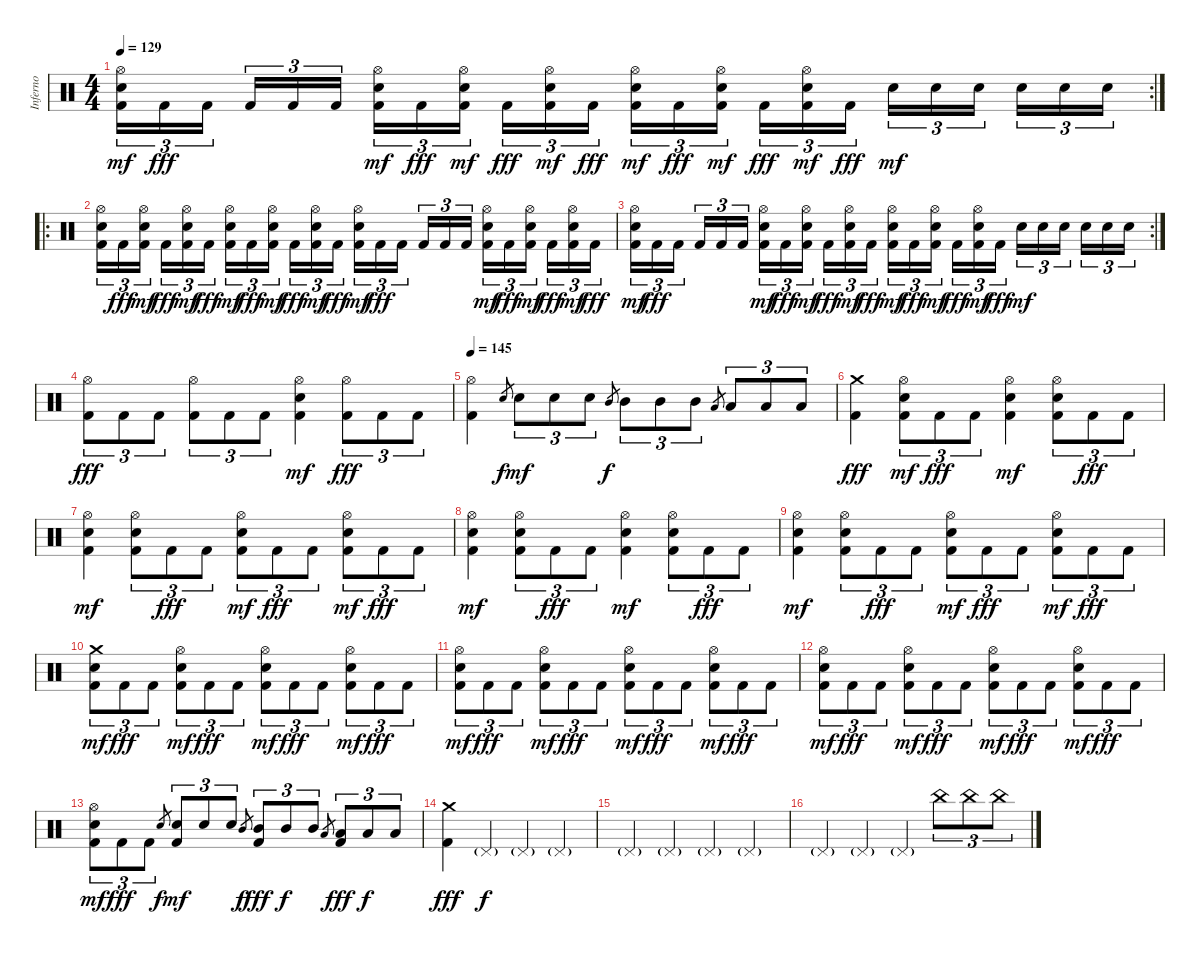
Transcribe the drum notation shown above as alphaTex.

\track ("Inferno" "Inferno") {instrument percussion}
\staff {score}
\articulation defaults
\rc 2
\ts (4 4)
\tempo 129
\clef neutral
\ks c
("Kick (hit) 2" "Electric Snare (hit)" "Hi-Hat (open)").16{tu (3 2) dy mf} "Kick (hit) 2".16{tu (3 2) dy fff} "Kick (hit) 2".16{tu (3 2) beam splitsecondary} "Kick (hit) 2".16{tu (3 2)} "Kick (hit) 2".16{tu (3 2)} "Kick (hit) 2".16{tu (3 2)} ("Kick (hit) 2" "Electric Snare (hit)" "Hi-Hat (open)").16{tu (3 2) dy mf} "Kick (hit) 2".16{tu (3 2) dy fff} ("Kick (hit) 2" "Electric Snare (hit)" "Hi-Hat (open)").16{tu (3 2) dy mf beam splitsecondary} "Kick (hit) 2".16{tu (3 2) dy fff} ("Kick (hit) 2" "Electric Snare (hit)" "Hi-Hat (open)").16{tu (3 2) dy mf} "Kick (hit) 2".16{tu (3 2) dy fff} ("Kick (hit) 2" "Electric Snare (hit)" "Hi-Hat (open)").16{tu (3 2) dy mf} "Kick (hit) 2".16{tu (3 2) dy fff} ("Kick (hit) 2" "Electric Snare (hit)" "Hi-Hat (open)").16{tu (3 2) dy mf beam splitsecondary} "Kick (hit) 2".16{tu (3 2) dy fff} ("Kick (hit) 2" "Electric Snare (hit)" "Hi-Hat (open)").16{tu (3 2) dy mf} "Kick (hit) 2".16{tu (3 2) dy fff} "Electric Snare (hit)".16{tu (3 2) dy mf} "Electric Snare (hit)".16{tu (3 2)} "Electric Snare (hit)".16{tu (3 2) beam splitsecondary} "Electric Snare (hit)".16{tu (3 2)} "Electric Snare (hit)".16{tu (3 2)} "Electric Snare (hit)".16{tu (3 2)} |
\ro
("Kick (hit) 2" "Electric Snare (hit)" "Hi-Hat (open)").16{tu (3 2)} "Kick (hit) 2".16{tu (3 2) dy fff} ("Kick (hit) 2" "Electric Snare (hit)" "Hi-Hat (open)").16{tu (3 2) dy mf beam splitsecondary} "Kick (hit) 2".16{tu (3 2) dy fff} ("Kick (hit) 2" "Electric Snare (hit)" "Hi-Hat (open)").16{tu (3 2) dy mf} "Kick (hit) 2".16{tu (3 2) dy fff} ("Kick (hit) 2" "Electric Snare (hit)" "Hi-Hat (open)").16{tu (3 2) dy mf} "Kick (hit) 2".16{tu (3 2) dy fff} ("Kick (hit) 2" "Electric Snare (hit)" "Hi-Hat (open)").16{tu (3 2) dy mf beam splitsecondary} "Kick (hit) 2".16{tu (3 2) dy fff} ("Kick (hit) 2" "Electric Snare (hit)" "Hi-Hat (open)").16{tu (3 2) dy mf} "Kick (hit) 2".16{tu (3 2) dy fff} ("Kick (hit) 2" "Electric Snare (hit)" "Hi-Hat (open)").16{tu (3 2) dy mf} "Kick (hit) 2".16{tu (3 2) dy fff} "Kick (hit) 2".16{tu (3 2) beam splitsecondary} "Kick (hit) 2".16{tu (3 2)} "Kick (hit) 2".16{tu (3 2)} "Kick (hit) 2".16{tu (3 2)} ("Kick (hit) 2" "Electric Snare (hit)" "Hi-Hat (open)").16{tu (3 2) dy mf} "Kick (hit) 2".16{tu (3 2) dy fff} ("Kick (hit) 2" "Electric Snare (hit)" "Hi-Hat (open)").16{tu (3 2) dy mf beam splitsecondary} "Kick (hit) 2".16{tu (3 2) dy fff} ("Kick (hit) 2" "Electric Snare (hit)" "Hi-Hat (open)").16{tu (3 2) dy mf} "Kick (hit) 2".16{tu (3 2) dy fff} |
\rc 2
("Kick (hit) 2" "Electric Snare (hit)" "Hi-Hat (open)").16{tu (3 2) dy mf} "Kick (hit) 2".16{tu (3 2) dy fff} "Kick (hit) 2".16{tu (3 2) beam splitsecondary} "Kick (hit) 2".16{tu (3 2)} "Kick (hit) 2".16{tu (3 2)} "Kick (hit) 2".16{tu (3 2)} ("Kick (hit) 2" "Electric Snare (hit)" "Hi-Hat (open)").16{tu (3 2) dy mf} "Kick (hit) 2".16{tu (3 2) dy fff} ("Kick (hit) 2" "Electric Snare (hit)" "Hi-Hat (open)").16{tu (3 2) dy mf beam splitsecondary} "Kick (hit) 2".16{tu (3 2) dy fff} ("Kick (hit) 2" "Electric Snare (hit)" "Hi-Hat (open)").16{tu (3 2) dy mf} "Kick (hit) 2".16{tu (3 2) dy fff} ("Kick (hit) 2" "Electric Snare (hit)" "Hi-Hat (open)").16{tu (3 2) dy mf} "Kick (hit) 2".16{tu (3 2) dy fff} ("Kick (hit) 2" "Electric Snare (hit)" "Hi-Hat (open)").16{tu (3 2) dy mf beam splitsecondary} "Kick (hit) 2".16{tu (3 2) dy fff} ("Kick (hit) 2" "Electric Snare (hit)" "Hi-Hat (open)").16{tu (3 2) dy mf} "Kick (hit) 2".16{tu (3 2) dy fff} "Electric Snare (hit)".16{tu (3 2) dy mf} "Electric Snare (hit)".16{tu (3 2)} "Electric Snare (hit)".16{tu (3 2) beam splitsecondary} "Electric Snare (hit)".16{tu (3 2)} "Electric Snare (hit)".16{tu (3 2)} "Electric Snare (hit)".16{tu (3 2)} |
("Kick (hit) 2" "Hi-Hat (open)").8{tu (3 2) dy fff} "Kick (hit) 2".8{tu (3 2)} "Kick (hit) 2".8{tu (3 2)} ("Kick (hit) 2" "Hi-Hat (open)").8{tu (3 2)} "Kick (hit) 2".8{tu (3 2)} "Kick (hit) 2".8{tu (3 2)} ("Kick (hit) 2" "Electric Snare (hit)" "Hi-Hat (open)").4{dy mf} ("Kick (hit) 2" "Hi-Hat (open)").8{tu (3 2) dy fff} "Kick (hit) 2".8{tu (3 2)} "Kick (hit) 2".8{tu (3 2)} |
\tempo 145
("Kick (hit) 2" "Hi-Hat (open)").4 "Electric Snare (hit)".8{gr dy f} "Electric Snare (hit)".8{tu (3 2) dy mf} "Electric Snare (hit)".8{tu (3 2)} "Electric Snare (hit)".8{tu (3 2)} "Mid Tom (hit)".8{gr dy f} "Mid Tom (hit)".8{tu (3 2)} "Mid Tom (hit)".8{tu (3 2)} "Mid Tom (hit)".8{tu (3 2)} "Low Tom (hit)".8{gr} "Low Tom (hit)".8{tu (3 2)} "Low Tom (hit)".8{tu (3 2)} "Low Tom (hit)".8{tu (3 2)} |
("Kick (hit) 2" "Crash medium (hit)").4{dy fff} ("Kick (hit) 2" "Electric Snare (hit)" "Hi-Hat (open)").8{tu (3 2) dy mf} "Kick (hit) 2".8{tu (3 2) dy fff} "Kick (hit) 2".8{tu (3 2)} ("Kick (hit) 2" "Electric Snare (hit)" "Hi-Hat (open)").4{dy mf} ("Kick (hit) 2" "Electric Snare (hit)" "Hi-Hat (open)").8{tu (3 2)} "Kick (hit) 2".8{tu (3 2) dy fff} "Kick (hit) 2".8{tu (3 2)} |
("Kick (hit) 2" "Electric Snare (hit)" "Hi-Hat (open)").4{dy mf} ("Kick (hit) 2" "Electric Snare (hit)" "Hi-Hat (open)").8{tu (3 2)} "Kick (hit) 2".8{tu (3 2) dy fff} "Kick (hit) 2".8{tu (3 2)} ("Kick (hit) 2" "Electric Snare (hit)" "Hi-Hat (open)").8{tu (3 2) dy mf} "Kick (hit) 2".8{tu (3 2) dy fff} "Kick (hit) 2".8{tu (3 2)} ("Kick (hit) 2" "Electric Snare (hit)" "Hi-Hat (open)").8{tu (3 2) dy mf} "Kick (hit) 2".8{tu (3 2) dy fff} "Kick (hit) 2".8{tu (3 2)} |
("Kick (hit) 2" "Electric Snare (hit)" "Hi-Hat (open)").4{dy mf} ("Kick (hit) 2" "Electric Snare (hit)" "Hi-Hat (open)").8{tu (3 2)} "Kick (hit) 2".8{tu (3 2) dy fff} "Kick (hit) 2".8{tu (3 2)} ("Kick (hit) 2" "Electric Snare (hit)" "Hi-Hat (open)").4{dy mf} ("Kick (hit) 2" "Electric Snare (hit)" "Hi-Hat (open)").8{tu (3 2)} "Kick (hit) 2".8{tu (3 2) dy fff} "Kick (hit) 2".8{tu (3 2)} |
("Kick (hit) 2" "Electric Snare (hit)" "Hi-Hat (open)").4{dy mf} ("Kick (hit) 2" "Electric Snare (hit)" "Hi-Hat (open)").8{tu (3 2)} "Kick (hit) 2".8{tu (3 2) dy fff} "Kick (hit) 2".8{tu (3 2)} ("Kick (hit) 2" "Electric Snare (hit)" "Hi-Hat (open)").8{tu (3 2) dy mf} "Kick (hit) 2".8{tu (3 2) dy fff} "Kick (hit) 2".8{tu (3 2)} ("Kick (hit) 2" "Electric Snare (hit)" "Hi-Hat (open)").8{tu (3 2) dy mf} "Kick (hit) 2".8{tu (3 2) dy fff} "Kick (hit) 2".8{tu (3 2)} |
("Kick (hit) 2" "Electric Snare (hit)" "Crash medium (hit)").8{tu (3 2) dy mf} "Kick (hit) 2".8{tu (3 2) dy fff} "Kick (hit) 2".8{tu (3 2)} ("Kick (hit) 2" "Electric Snare (hit)" "Hi-Hat (open)").8{tu (3 2) dy mf} "Kick (hit) 2".8{tu (3 2) dy fff} "Kick (hit) 2".8{tu (3 2)} ("Kick (hit) 2" "Electric Snare (hit)" "Hi-Hat (open)").8{tu (3 2) dy mf} "Kick (hit) 2".8{tu (3 2) dy fff} "Kick (hit) 2".8{tu (3 2)} ("Kick (hit) 2" "Electric Snare (hit)" "Hi-Hat (open)").8{tu (3 2) dy mf} "Kick (hit) 2".8{tu (3 2) dy fff} "Kick (hit) 2".8{tu (3 2)} |
("Kick (hit) 2" "Electric Snare (hit)" "Hi-Hat (open)").8{tu (3 2) dy mf} "Kick (hit) 2".8{tu (3 2) dy fff} "Kick (hit) 2".8{tu (3 2)} ("Kick (hit) 2" "Electric Snare (hit)" "Hi-Hat (open)").8{tu (3 2) dy mf} "Kick (hit) 2".8{tu (3 2) dy fff} "Kick (hit) 2".8{tu (3 2)} ("Kick (hit) 2" "Electric Snare (hit)" "Hi-Hat (open)").8{tu (3 2) dy mf} "Kick (hit) 2".8{tu (3 2) dy fff} "Kick (hit) 2".8{tu (3 2)} ("Kick (hit) 2" "Electric Snare (hit)" "Hi-Hat (open)").8{tu (3 2) dy mf} "Kick (hit) 2".8{tu (3 2) dy fff} "Kick (hit) 2".8{tu (3 2)} |
("Kick (hit) 2" "Electric Snare (hit)" "Hi-Hat (open)").8{tu (3 2) dy mf} "Kick (hit) 2".8{tu (3 2) dy fff} "Kick (hit) 2".8{tu (3 2)} ("Kick (hit) 2" "Electric Snare (hit)" "Hi-Hat (open)").8{tu (3 2) dy mf} "Kick (hit) 2".8{tu (3 2) dy fff} "Kick (hit) 2".8{tu (3 2)} ("Kick (hit) 2" "Electric Snare (hit)" "Hi-Hat (open)").8{tu (3 2) dy mf} "Kick (hit) 2".8{tu (3 2) dy fff} "Kick (hit) 2".8{tu (3 2)} ("Kick (hit) 2" "Electric Snare (hit)" "Hi-Hat (open)").8{tu (3 2) dy mf} "Kick (hit) 2".8{tu (3 2) dy fff} "Kick (hit) 2".8{tu (3 2)} |
("Kick (hit) 2" "Electric Snare (hit)" "Hi-Hat (open)").8{tu (3 2) dy mf} "Kick (hit) 2".8{tu (3 2) dy fff} "Kick (hit) 2".8{tu (3 2)} "Electric Snare (hit)".8{gr dy f} ("Kick (hit) 2" "Electric Snare (hit)").8{tu (3 2) dy mf} "Electric Snare (hit)".8{tu (3 2)} "Electric Snare (hit)".8{tu (3 2)} "Mid Tom (hit)".8{gr dy f} ("Kick (hit) 2" "Mid Tom (hit)").8{tu (3 2) dy fff} "Mid Tom (hit)".8{tu (3 2) dy f} "Mid Tom (hit)".8{tu (3 2)} "Low Tom (hit)".8{gr} ("Kick (hit) 2" "Low Tom (hit)").8{tu (3 2) dy fff} "Low Tom (hit)".8{tu (3 2) dy f} "Low Tom (hit)".8{tu (3 2)} |
("Kick (hit) 2" "Crash medium (hit)").4{dy fff} "Pedal Hi-Hat (hit)"{g}.4{dy f} "Pedal Hi-Hat (hit)"{g}.4 "Pedal Hi-Hat (hit)"{g}.4 |
"Pedal Hi-Hat (hit)"{g}.4 "Pedal Hi-Hat (hit)"{g}.4 "Pedal Hi-Hat (hit)"{g}.4 "Pedal Hi-Hat (hit)"{g}.4 |
"Pedal Hi-Hat (hit)"{g}.4 "Pedal Hi-Hat (hit)"{g}.4 "Pedal Hi-Hat (hit)"{g}.4 "China (hit)".8{tu (3 2)} "China (hit)".8{tu (3 2)} "China (hit)".8{tu (3 2)}
